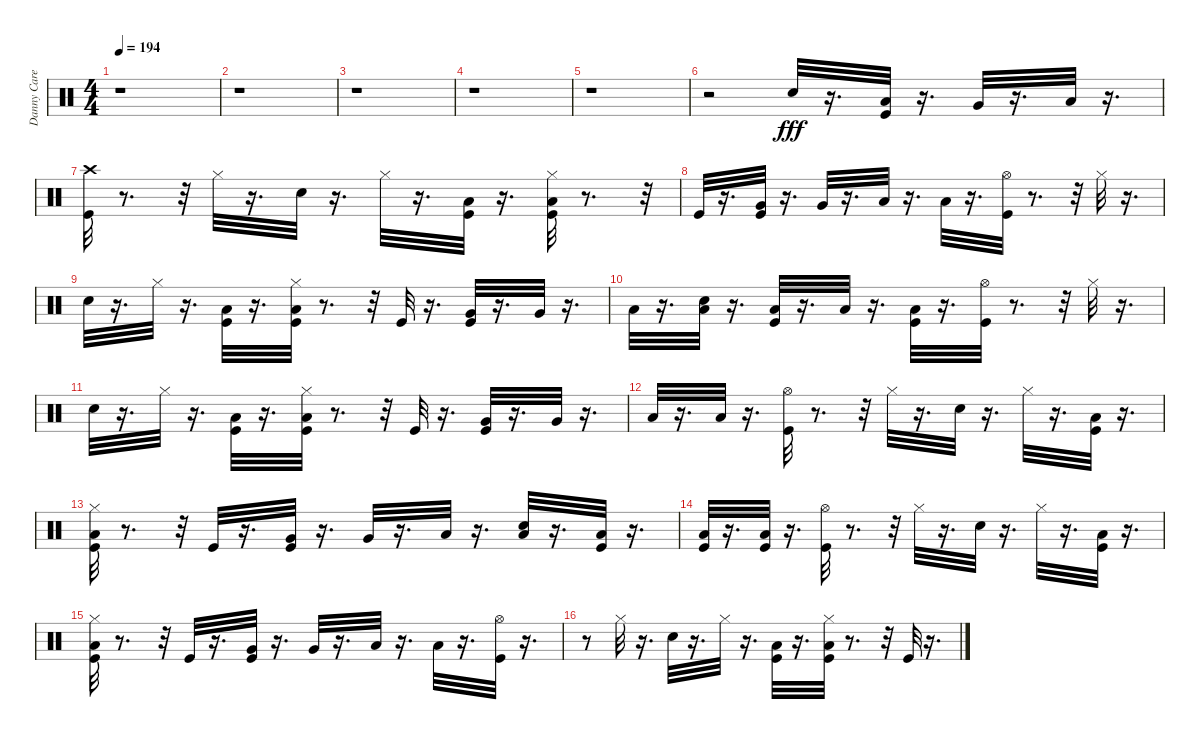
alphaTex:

\track ("Danny Carey" "Danny Care") {instrument percussion}
\staff {score}
\articulation defaults
\ts (4 4)
\tempo 194
\clef neutral
\ks c
r.1{dy fff} |
r.1 |
r.1 |
r.1 |
r.1 |
r.2 "Snare (hit) 2".32 r.16{d} ("Low Tom (hit)" "Kick (hit)").32 r.16{d} "Very Low Tom (hit)".32 r.16{d} "Low Floor Tom (hit)".32 r.16{d} |
("Crash high (hit)" "Kick (hit)").32 r.8{d} r.32 "Hi-Hat (closed)".32 r.16{d} "Snare (hit) 2".32 r.16{d} "Hi-Hat (closed)".32 r.16{d} ("Low Floor Tom (hit)" "Kick (hit)").32 r.16{d} ("Low Floor Tom (hit)" "Hi-Hat (closed)" "Kick (hit)").32 r.8{d} r.32 |
"Kick (hit)".32 r.16{d} ("Very Low Tom (hit)" "Kick (hit)").32 r.16{d} "Very Low Tom (hit)".32 r.16{d} "Low Floor Tom (hit)".32 r.16{d} "Low Floor Tom (hit)".32 r.16{d} ("Kick (hit)" "Hi-Hat (open)").32 r.8{d} r.32 "Hi-Hat (closed)".32 r.16{d} |
"Snare (hit) 2".32 r.16{d} "Hi-Hat (closed)".32 r.16{d} ("Kick (hit)" "Low Floor Tom (hit)").32 r.16{d} ("Kick (hit)" "Low Floor Tom (hit)" "Hi-Hat (closed)").32 r.8{d} r.32 "Kick (hit)".32 r.16{d} ("Very Low Tom (hit)" "Kick (hit)").32 r.16{d} "Very Low Tom (hit)".32 r.16{d} |
"Low Floor Tom (hit)".32 r.16{d} ("Snare (hit) 2" "Low Floor Tom (hit)").32 r.16{d} ("Kick (hit)" "Low Floor Tom (hit)").32 r.16{d} "Low Floor Tom (hit)".32 r.16{d} ("Kick (hit)" "Low Floor Tom (hit)").32 r.16{d} ("Hi-Hat (open)" "Kick (hit)").32 r.8{d} r.32 "Hi-Hat (closed)".32 r.16{d} |
"Snare (hit) 2".32 r.16{d} "Hi-Hat (closed)".32 r.16{d} ("Low Floor Tom (hit)" "Kick (hit)").32 r.16{d} ("Low Floor Tom (hit)" "Hi-Hat (closed)" "Kick (hit)").32 r.8{d} r.32 "Kick (hit)".32 r.16{d} ("Very Low Tom (hit)" "Kick (hit)").32 r.16{d} "Very Low Tom (hit)".32 r.16{d} |
"Low Floor Tom (hit)".32 r.16{d} "Low Floor Tom (hit)".32 r.16{d} ("Hi-Hat (open)" "Kick (hit)").32 r.8{d} r.32 "Hi-Hat (closed)".32 r.16{d} "Snare (hit) 2".32 r.16{d} "Hi-Hat (closed)".32 r.16{d} ("Kick (hit)" "Low Floor Tom (hit)").32 r.16{d} |
("Kick (hit)" "Low Floor Tom (hit)" "Hi-Hat (closed)").32 r.8{d} r.32 "Kick (hit)".32 r.16{d} ("Very Low Tom (hit)" "Kick (hit)").32 r.16{d} "Very Low Tom (hit)".32 r.16{d} "Low Floor Tom (hit)".32 r.16{d} ("Snare (hit) 2" "Low Floor Tom (hit)").32 r.16{d} ("Kick (hit)" "Low Floor Tom (hit)").32 r.16{d} |
("Kick (hit)" "Low Floor Tom (hit)").32 r.16{d} ("Kick (hit)" "Low Floor Tom (hit)").32 r.16{d} ("Hi-Hat (open)" "Kick (hit)").32 r.8{d} r.32 "Hi-Hat (closed)".32 r.16{d} "Snare (hit) 2".32 r.16{d} "Hi-Hat (closed)".32 r.16{d} ("Low Floor Tom (hit)" "Kick (hit)").32 r.16{d} |
("Low Floor Tom (hit)" "Hi-Hat (closed)" "Kick (hit)").32 r.8{d} r.32 "Kick (hit)".32 r.16{d} ("Very Low Tom (hit)" "Kick (hit)").32 r.16{d} "Very Low Tom (hit)".32 r.16{d} "Low Floor Tom (hit)".32 r.16{d} "Low Floor Tom (hit)".32 r.16{d} ("Hi-Hat (open)" "Kick (hit)").32 r.16{d} |
r.8 "Hi-Hat (closed)".32 r.16{d} "Snare (hit) 2".32 r.16{d} "Hi-Hat (closed)".32 r.16{d} ("Kick (hit)" "Low Floor Tom (hit)").32 r.16{d} ("Kick (hit)" "Low Floor Tom (hit)" "Hi-Hat (closed)").32 r.8{d} r.32 "Kick (hit)".32 r.16{d}
